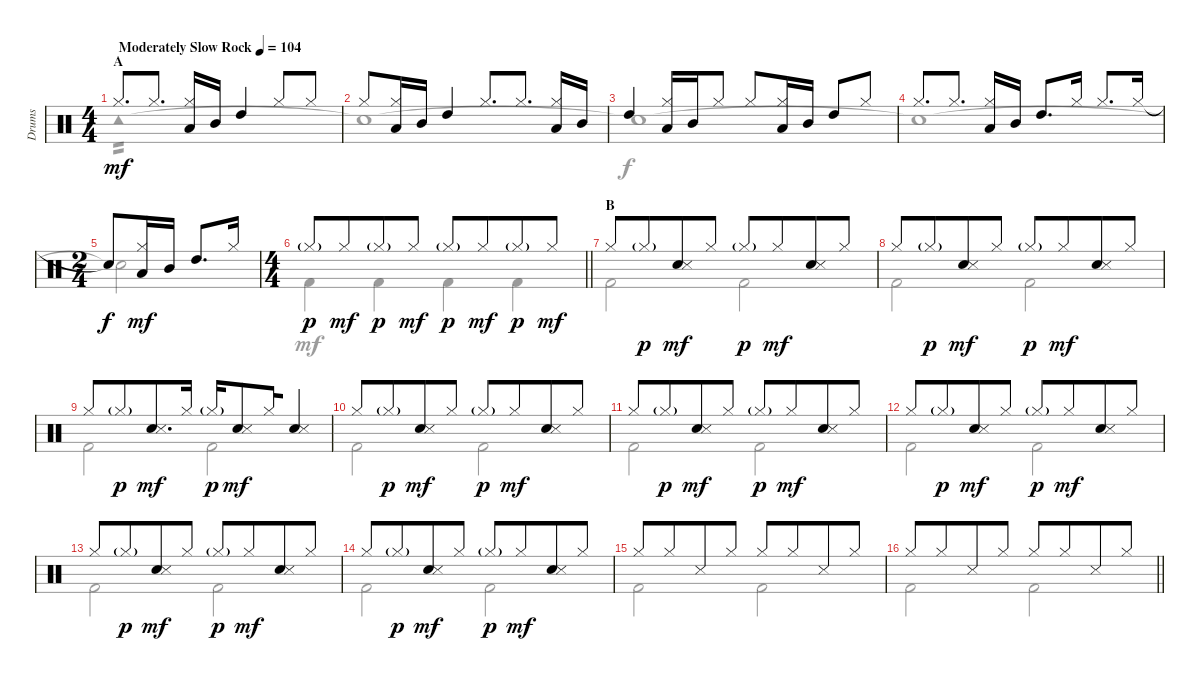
\track ("Drums" "Drums") {instrument percussion}
\staff {score}
\articulation defaults
\voice
\ts (4 4)
\section ("" "A")
\tempo (104 "Moderately Slow Rock")
\clef neutral
\ks c "Hi-Hat (closed)".8{d dy mf} "Hi-Hat (closed)".8{d}
("Hi-Hat (closed)" "Low Tom (hit)").16 "Mid Tom (hit)".16 "High Tom (hit)".4 "Hi-Hat (closed)".8 "Hi-Hat (closed)".8 |
"Hi-Hat (closed)".8 ("Hi-Hat (closed)" "Low Tom (hit)").16 "Mid Tom (hit)".16 "High Tom (hit)".4 "Hi-Hat (closed)".8{d} "Hi-Hat (closed)".8{d} ("Hi-Hat (closed)" "Low Tom (hit)").16 "Mid Tom (hit)".16 |
"High Tom (hit)".4 ("Hi-Hat (closed)" "Low Tom (hit)").16 "Mid Tom (hit)".16 "Hi-Hat (closed)".8 "Hi-Hat (closed)".8 ("Hi-Hat (closed)" "Low Tom (hit)").16 "Mid Tom (hit)".16 "High Tom (hit)".8 "Hi-Hat (closed)".8 |
"Hi-Hat (closed)".8{d} "Hi-Hat (closed)".8{d} ("Hi-Hat (closed)" "Low Tom (hit)").16 "Mid Tom (hit)".16 "High Tom (hit)".8{d} "Hi-Hat (closed)".16 "Hi-Hat (closed)".8{d} "Hi-Hat (closed)".16 |
\ts (2 4)
"Snare (hit)"{t}.8{dy f} ("Hi-Hat (closed)" "Low Tom (hit)").16{dy mf} "Mid Tom (hit)".16 "High Tom (hit)".8{d} "Hi-Hat (closed)".16 |
\ts (4 4)
\barLineRight lightlight "Hi-Hat (closed)"{g}.8{dy p} "Hi-Hat (closed)".8{dy mf beam merge} "Hi-Hat (closed)"{g}.8{dy p} "Hi-Hat (closed)".8{dy mf} "Hi-Hat (closed)"{g}.8{dy p} "Hi-Hat (closed)".8{dy mf beam merge} "Hi-Hat (closed)"{g}.8{dy p} "Hi-Hat (closed)".8{dy mf}
|
\section ("" "B")
"Hi-Hat (closed)".8 "Hi-Hat (closed)"{g}.8{dy p beam merge} ("Electric Snare (hit)" "Snare (side stick) 3").8{dy mf} "Hi-Hat (closed)".8 "Hi-Hat (closed)"{g}.8{dy p} "Hi-Hat (closed)".8{dy mf beam merge} ("Electric Snare (hit)" "Snare (side stick) 3").8 "Hi-Hat (closed)".8 |
"Hi-Hat (closed)".8 "Hi-Hat (closed)"{g}.8{dy p beam merge} ("Electric Snare (hit)" "Snare (side stick) 3").8{dy mf} "Hi-Hat (closed)".8 "Hi-Hat (closed)"{g}.8{dy p} "Hi-Hat (closed)".8{dy mf beam merge} ("Electric Snare (hit)" "Snare (side stick) 3").8 "Hi-Hat (closed)".8 |
"Hi-Hat (closed)".8 "Hi-Hat (closed)"{g}.8{dy p beam merge} ("Electric Snare (hit)" "Snare (side stick) 3").8{d dy mf} "Hi-Hat (closed)".16 "Hi-Hat (closed)"{g}.16{dy p beam merge} ("Electric Snare (hit)" "Snare (side stick) 3").8{dy mf} "Hi-Hat (closed)".16{beam merge} ("Electric Snare (hit)" "Snare (side stick) 3").4 |
"Hi-Hat (closed)".8 "Hi-Hat (closed)"{g}.8{dy p beam merge} ("Electric Snare (hit)" "Snare (side stick) 3").8{dy mf} "Hi-Hat (closed)".8 "Hi-Hat (closed)"{g}.8{dy p} "Hi-Hat (closed)".8{dy mf beam merge} ("Electric Snare (hit)" "Snare (side stick) 3").8 "Hi-Hat (closed)".8 |
"Hi-Hat (closed)".8 "Hi-Hat (closed)"{g}.8{dy p beam merge} ("Electric Snare (hit)" "Snare (side stick) 3").8{dy mf} "Hi-Hat (closed)".8 "Hi-Hat (closed)"{g}.8{dy p} "Hi-Hat (closed)".8{dy mf beam merge} ("Electric Snare (hit)" "Snare (side stick) 3").8 "Hi-Hat (closed)".8 |
"Hi-Hat (closed)".8 "Hi-Hat (closed)"{g}.8{dy p beam merge} ("Electric Snare (hit)" "Snare (side stick) 3").8{dy mf} "Hi-Hat (closed)".8 "Hi-Hat (closed)"{g}.8{dy p} "Hi-Hat (closed)".8{dy mf beam merge} ("Electric Snare (hit)" "Snare (side stick) 3").8 "Hi-Hat (closed)".8 |
"Hi-Hat (closed)".8 "Hi-Hat (closed)"{g}.8{dy p beam merge} ("Electric Snare (hit)" "Snare (side stick) 3").8{dy mf} "Hi-Hat (closed)".8 "Hi-Hat (closed)"{g}.8{dy p} "Hi-Hat (closed)".8{dy mf beam merge} ("Electric Snare (hit)" "Snare (side stick) 3").8 "Hi-Hat (closed)".8 |
"Hi-Hat (closed)".8 "Hi-Hat (closed)"{g}.8{dy p beam merge} ("Electric Snare (hit)" "Snare (side stick) 3").8{dy mf} "Hi-Hat (closed)".8 "Hi-Hat (closed)"{g}.8{dy p} "Hi-Hat (closed)".8{dy mf beam merge} ("Electric Snare (hit)" "Snare (side stick) 3").8 "Hi-Hat (closed)".8 |
"Hi-Hat (closed)".8 "Hi-Hat (closed)".8{beam merge} "Snare (side stick) 3".8 "Hi-Hat (closed)".8 "Hi-Hat (closed)".8 "Hi-Hat (closed)".8{beam merge} "Snare (side stick) 3".8 "Hi-Hat (closed)".8 |
\barLineRight lightlight "Hi-Hat (closed)".8 "Hi-Hat (closed)".8{beam merge} "Snare (side stick) 3".8 "Hi-Hat (closed)".8 "Hi-Hat (closed)".8 "Hi-Hat (closed)".8{beam merge} "Snare (side stick) 3".8 "Hi-Hat (closed)".8
\voice
\clef neutral
\ottava regular
\simile none
\ks c "Tambourine (hit)".1{tp 2 dy mf}
|
"Snare (hit)"{t}.1 |
"Snare (hit)"{t}.1{dy f} |
"Snare (hit)"{t}.1 |
"Snare (hit)"{t}.2 |
\barLineRight lightlight "Kick (hit) 2".4{dy mf} "Kick (hit) 2".4 "Kick (hit) 2".4 "Kick (hit) 2".4
|
"Kick (hit) 2".2 "Kick (hit) 2".2 |
"Kick (hit) 2".2 "Kick (hit) 2".2 |
"Kick (hit) 2".2 "Kick (hit) 2".2 |
"Kick (hit) 2".2 "Kick (hit) 2".2 |
"Kick (hit) 2".2 "Kick (hit) 2".2 |
"Kick (hit) 2".2 "Kick (hit) 2".2 |
"Kick (hit) 2".2 "Kick (hit) 2".2 |
"Kick (hit) 2".2 "Kick (hit) 2".2 |
"Kick (hit) 2".2 "Kick (hit) 2".2 |
\barLineRight lightlight "Kick (hit) 2".2 "Kick (hit) 2".2
